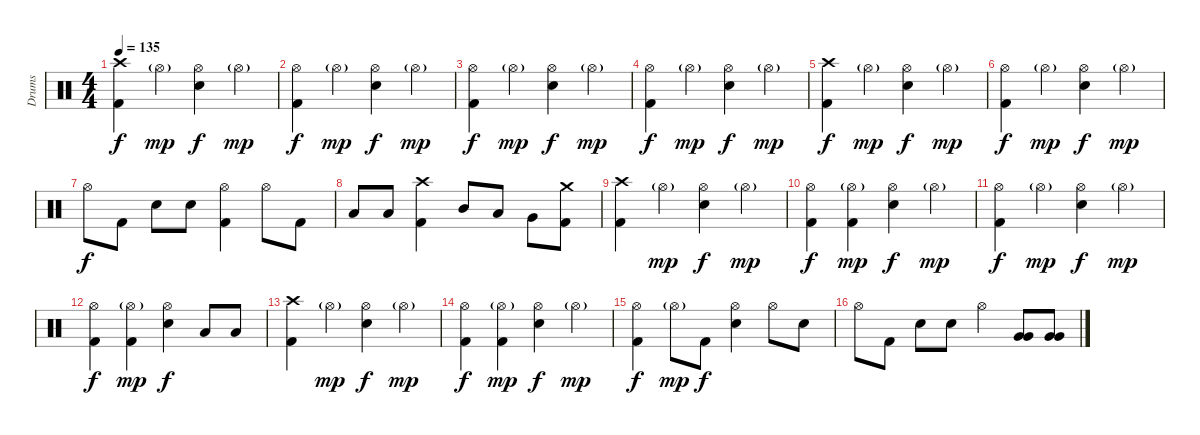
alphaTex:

\track ("Drums" "Drums") {instrument percussion}
\staff {score}
\articulation defaults
\ts (4 4)
\tempo 135
\clef neutral
\ks c
("Crash high (hit)" "Kick (hit) 2").4{dy f} "Hi-Hat (open)"{g}.4{dy mp} ("Hi-Hat (open)" "Snare (hit) 2").4{dy f} "Hi-Hat (open)"{g}.4{dy mp} |
("Hi-Hat (open)" "Kick (hit) 2").4{dy f} "Hi-Hat (open)"{g}.4{dy mp} ("Hi-Hat (open)" "Snare (hit) 2").4{dy f} "Hi-Hat (open)"{g}.4{dy mp} |
("Hi-Hat (open)" "Kick (hit) 2").4{dy f} "Hi-Hat (open)"{g}.4{dy mp} ("Hi-Hat (open)" "Snare (hit) 2").4{dy f} "Hi-Hat (open)"{g}.4{dy mp} |
("Hi-Hat (open)" "Kick (hit) 2").4{dy f} "Hi-Hat (open)"{g}.4{dy mp} ("Hi-Hat (open)" "Snare (hit) 2").4{dy f} "Hi-Hat (open)"{g}.4{dy mp} |
("Crash high (hit)" "Kick (hit) 2").4{dy f} "Hi-Hat (open)"{g}.4{dy mp} ("Hi-Hat (open)" "Snare (hit) 2").4{dy f} "Hi-Hat (open)"{g}.4{dy mp} |
("Hi-Hat (open)" "Kick (hit) 2").4{dy f} "Hi-Hat (open)"{g}.4{dy mp} ("Hi-Hat (open)" "Snare (hit) 2").4{dy f} "Hi-Hat (open)"{g}.4{dy mp} |
"Hi-Hat (open)".8{dy f} "Kick (hit) 2".8 "Snare (hit) 2".8 "Snare (hit) 2".8 ("Hi-Hat (open)" "Kick (hit) 2").4 "Hi-Hat (open)".8 "Kick (hit) 2".8 |
"Low Tom (hit)".8 "Low Tom (hit)".8 ("Crash high (hit)" "Kick (hit) 2").4 "Mid Tom (hit)".8 "Low Tom (hit)".8 "Very Low Tom (hit)".8 ("Crash medium (hit)" "Kick (hit) 2").8 |
("Crash high (hit)" "Kick (hit) 2").4 "Hi-Hat (open)"{g}.4{dy mp} ("Hi-Hat (open)" "Snare (hit) 2").4{dy f} "Hi-Hat (open)"{g}.4{dy mp} |
("Hi-Hat (open)" "Kick (hit) 2").4{dy f} ("Hi-Hat (open)"{g} "Kick (hit) 2").4{dy mp} ("Hi-Hat (open)" "Snare (hit) 2").4{dy f} "Hi-Hat (open)"{g}.4{dy mp} |
("Hi-Hat (open)" "Kick (hit) 2").4{dy f} "Hi-Hat (open)"{g}.4{dy mp} ("Hi-Hat (open)" "Snare (hit) 2").4{dy f} "Hi-Hat (open)"{g}.4{dy mp} |
("Hi-Hat (open)" "Kick (hit) 2").4{dy f} ("Hi-Hat (open)"{g} "Kick (hit) 2").4{dy mp} ("Hi-Hat (open)" "Snare (hit) 2").4{dy f} "Low Tom (hit)".8 "Low Tom (hit)".8 |
("Crash high (hit)" "Kick (hit) 2").4 "Hi-Hat (open)"{g}.4{dy mp} ("Hi-Hat (open)" "Snare (hit) 2").4{dy f} "Hi-Hat (open)"{g}.4{dy mp} |
("Hi-Hat (open)" "Kick (hit) 2").4{dy f} ("Hi-Hat (open)"{g} "Kick (hit) 2").4{dy mp} ("Hi-Hat (open)" "Snare (hit) 2").4{dy f} "Hi-Hat (open)"{g}.4{dy mp} |
("Hi-Hat (open)" "Kick (hit) 2").4{dy f} "Hi-Hat (open)"{g}.8{dy mp} "Kick (hit) 2".8{dy f} ("Hi-Hat (open)" "Snare (hit) 2").4 "Hi-Hat (open)".8 "Snare (hit) 2".8 |
"Hi-Hat (open)".8 "Kick (hit) 2".8 "Snare (hit) 2".8 "Snare (hit) 2".8 "Hi-Hat (open)".4 ("Very Low Tom (hit)" "Very Low Tom (hit)").8 ("Very Low Tom (hit)" "Very Low Tom (hit)").8
